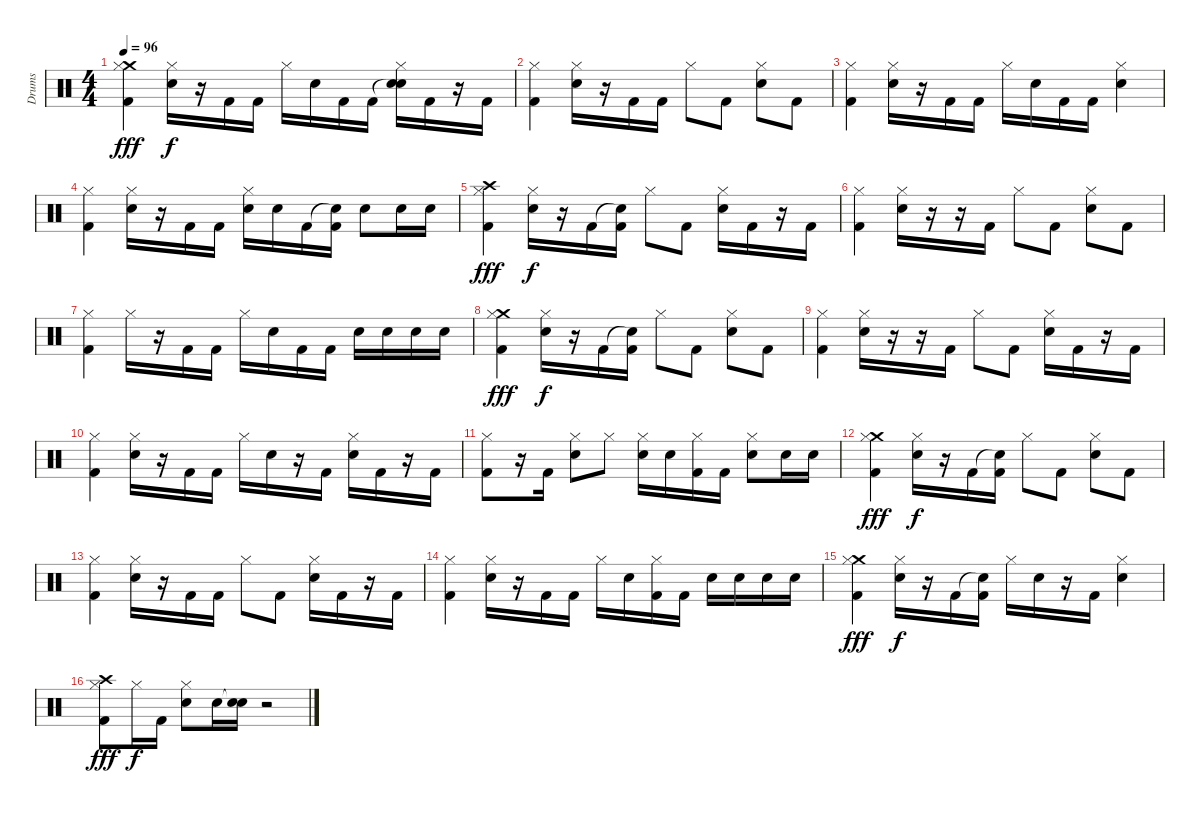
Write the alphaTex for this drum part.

\track ("Drums" "Drums") {instrument percussion}
\staff {score}
\articulation defaults
\ts (4 4)
\tempo 96
\clef neutral
\ks c
("Crash medium (hit)" "Hi-Hat (closed)" "Kick (hit) 2").4{dy fff} ("Hi-Hat (closed)" "Snare (hit) 2").16{dy f} r.16 "Kick (hit) 2".16 "Kick (hit) 2".16 "Hi-Hat (closed)".16 "Snare (hit) 2".16 "Kick (hit) 2".16 "Kick (hit) 2".16 ("Snare (hit)"{t} "Hi-Hat (closed)" "Snare (hit) 2").16 "Kick (hit) 2".16 r.16 "Kick (hit) 2".16 |
("Hi-Hat (closed)" "Kick (hit) 2").4 ("Hi-Hat (closed)" "Snare (hit) 2").16 r.16 "Kick (hit) 2".16 "Kick (hit) 2".16 "Hi-Hat (closed)".8 "Kick (hit) 2".8 ("Hi-Hat (closed)" "Snare (hit) 2").8 "Kick (hit) 2".8 |
("Hi-Hat (closed)" "Kick (hit) 2").4 ("Hi-Hat (closed)" "Snare (hit) 2").16 r.16 "Kick (hit) 2".16 "Kick (hit) 2".16 "Hi-Hat (closed)".16 "Snare (hit) 2".16 "Kick (hit) 2".16 "Kick (hit) 2".16 ("Hi-Hat (closed)" "Snare (hit) 2").4 |
("Hi-Hat (closed)" "Kick (hit) 2").4 ("Hi-Hat (closed)" "Snare (hit) 2").16 r.16 "Kick (hit) 2".16 "Kick (hit) 2".16 ("Hi-Hat (closed)" "Snare (hit) 2").16 "Snare (hit) 2".16 "Kick (hit) 2".16 ("Snare (hit)"{t} "Kick (hit) 2").16 "Snare (hit) 2".8 "Snare (hit) 2".16 "Snare (hit) 2".16 |
("Crash high (hit)" "Hi-Hat (closed)" "Kick (hit) 2").4{dy fff} ("Hi-Hat (closed)" "Snare (hit) 2").16{dy f} r.16 "Kick (hit) 2".16 ("Snare (hit)"{t} "Kick (hit) 2").16 "Hi-Hat (closed)".8 "Kick (hit) 2".8 ("Hi-Hat (closed)" "Snare (hit) 2").16 "Kick (hit) 2".16 r.16 "Kick (hit) 2".16 |
("Hi-Hat (closed)" "Kick (hit) 2").4 ("Hi-Hat (closed)" "Snare (hit) 2").16 r.16 r.16 "Kick (hit) 2".16 "Hi-Hat (closed)".8 "Kick (hit) 2".8 ("Hi-Hat (closed)" "Snare (hit) 2").8 "Kick (hit) 2".8 |
("Hi-Hat (closed)" "Kick (hit) 2").4 "Hi-Hat (closed)".16 r.16 "Kick (hit) 2".16 "Kick (hit) 2".16 "Hi-Hat (closed)".16 "Snare (hit) 2".16 "Kick (hit) 2".16 "Kick (hit) 2".16 "Snare (hit) 2".16 "Snare (hit) 2".16 "Snare (hit) 2".16 "Snare (hit) 2".16 |
("Crash medium (hit)" "Hi-Hat (closed)" "Kick (hit) 2").4{dy fff} ("Hi-Hat (closed)" "Snare (hit) 2").16{dy f} r.16 "Kick (hit) 2".16 ("Snare (hit)"{t} "Kick (hit) 2").16 "Hi-Hat (closed)".8 "Kick (hit) 2".8 ("Hi-Hat (closed)" "Snare (hit) 2").8 "Kick (hit) 2".8 |
("Hi-Hat (closed)" "Kick (hit) 2").4 ("Hi-Hat (closed)" "Snare (hit) 2").16 r.16 r.16 "Kick (hit) 2".16 "Hi-Hat (closed)".8 "Kick (hit) 2".8 ("Hi-Hat (closed)" "Snare (hit) 2").16 "Kick (hit) 2".16 r.16 "Kick (hit) 2".16 |
("Hi-Hat (closed)" "Kick (hit) 2").4 ("Hi-Hat (closed)" "Snare (hit) 2").16 r.16 "Kick (hit) 2".16 "Kick (hit) 2".16 "Hi-Hat (closed)".16 "Snare (hit) 2".16 r.16 "Kick (hit) 2".16 ("Hi-Hat (closed)" "Snare (hit) 2").16 "Kick (hit) 2".16 r.16 "Kick (hit) 2".16 |
("Hi-Hat (closed)" "Kick (hit) 2").8 r.16 "Kick (hit) 2".16 ("Hi-Hat (closed)" "Snare (hit) 2").8 "Hi-Hat (closed)".8 ("Hi-Hat (closed)" "Snare (hit) 2").16 "Snare (hit) 2".16 ("Hi-Hat (closed)" "Kick (hit) 2").16 "Kick (hit) 2".16 ("Hi-Hat (closed)" "Snare (hit) 2").8 "Snare (hit) 2".16 "Snare (hit) 2".16 |
("Crash medium (hit)" "Hi-Hat (closed)" "Kick (hit) 2").4{dy fff} ("Hi-Hat (closed)" "Snare (hit) 2").16{dy f} r.16 "Kick (hit) 2".16 ("Snare (hit)"{t} "Kick (hit) 2").16 "Hi-Hat (closed)".8 "Kick (hit) 2".8 ("Hi-Hat (closed)" "Snare (hit) 2").8 "Kick (hit) 2".8 |
("Hi-Hat (closed)" "Kick (hit) 2").4 ("Hi-Hat (closed)" "Snare (hit) 2").16 r.16 "Kick (hit) 2".16 "Kick (hit) 2".16 "Hi-Hat (closed)".8 "Kick (hit) 2".8 ("Hi-Hat (closed)" "Snare (hit) 2").16 "Kick (hit) 2".16 r.16 "Kick (hit) 2".16 |
("Hi-Hat (closed)" "Kick (hit) 2").4 ("Hi-Hat (closed)" "Snare (hit) 2").16 r.16 "Kick (hit) 2".16 "Kick (hit) 2".16 "Hi-Hat (closed)".16 "Snare (hit) 2".16 ("Hi-Hat (closed)" "Kick (hit) 2").16 "Kick (hit) 2".16 "Snare (hit) 2".16 "Snare (hit) 2".16 "Snare (hit) 2".16 "Snare (hit) 2".16 |
("Crash medium (hit)" "Hi-Hat (closed)" "Kick (hit) 2").4{dy fff} ("Hi-Hat (closed)" "Snare (hit) 2").16{dy f} r.16 "Kick (hit) 2".16 ("Snare (hit)"{t} "Kick (hit) 2").16 "Hi-Hat (closed)".16 "Snare (hit) 2".16 r.16 "Kick (hit) 2".16 ("Hi-Hat (closed)" "Snare (hit) 2").4 |
("Crash high (hit)" "Hi-Hat (closed)" "Kick (hit) 2").8{dy fff} "Hi-Hat (closed)".16{dy f} "Kick (hit) 2".16 ("Hi-Hat (closed)" "Snare (hit) 2").8 "Snare (hit) 2".16 ("Snare (hit)"{t} "Snare (hit) 2").16 r.2
